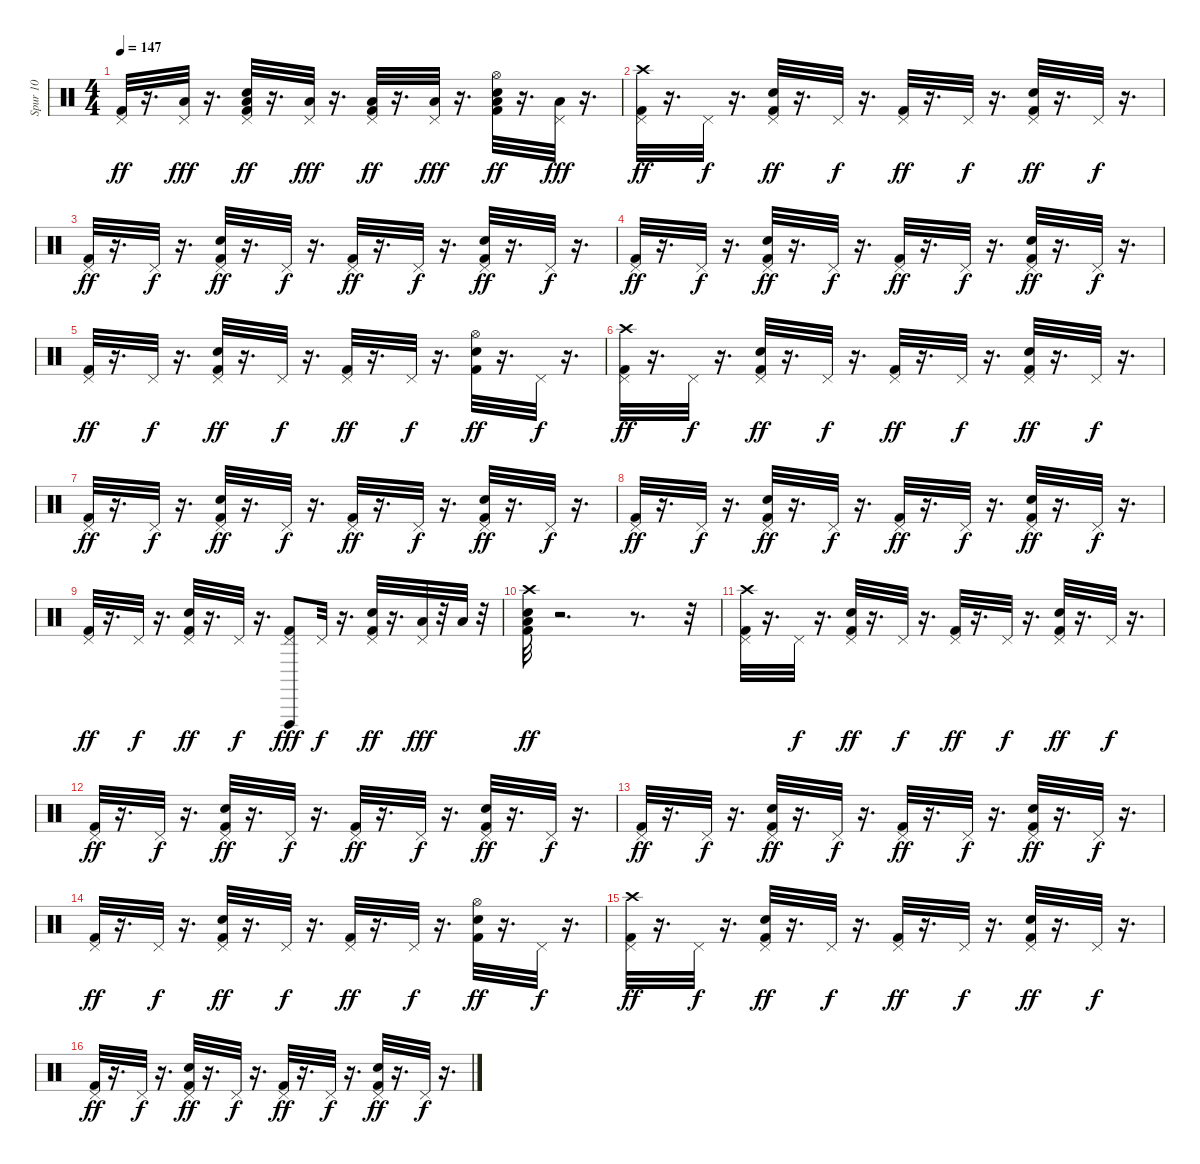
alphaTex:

\track ("Spur 10" "Spur 10") {instrument percussion}
\staff {score}
\articulation defaults
\ts (4 4)
\tempo 147
\clef neutral
\ks c
("Pedal Hi-Hat (hit)" "Kick (hit) 2").32{dy ff} r.16{d} ("Low Tom (hit)" "Pedal Hi-Hat (hit)").32{dy fff} r.16{d} ("Low Tom (hit)" "Snare (hit) 2" "Kick (hit) 2" "Pedal Hi-Hat (hit)").32{dy ff} r.16{d} ("Low Tom (hit)" "Pedal Hi-Hat (hit)").32{dy fff} r.16{d} ("Low Tom (hit)" "Kick (hit) 2" "Pedal Hi-Hat (hit)").32{dy ff} r.16{d} ("Low Floor Tom (hit)" "Pedal Hi-Hat (hit)").32{dy fff} r.16{d} ("Low Floor Tom (hit)" "Snare (hit) 2" "Hi-Hat (open)" "Kick (hit) 2").32{dy ff} r.16{d} ("Low Floor Tom (hit)" "Pedal Hi-Hat (hit)").32{dy fff} r.16{d} |
("Pedal Hi-Hat (hit)" "Kick (hit) 2" "Crash high (hit)").32{dy ff} r.16{d} "Pedal Hi-Hat (hit)".32{dy f} r.16{d} ("Snare (hit) 2" "Kick (hit) 2" "Pedal Hi-Hat (hit)").32{dy ff} r.16{d} "Pedal Hi-Hat (hit)".32{dy f} r.16{d} ("Kick (hit) 2" "Pedal Hi-Hat (hit)").32{dy ff} r.16{d} "Pedal Hi-Hat (hit)".32{dy f} r.16{d} ("Snare (hit) 2" "Pedal Hi-Hat (hit)" "Kick (hit) 2").32{dy ff} r.16{d} "Pedal Hi-Hat (hit)".32{dy f} r.16{d} |
("Pedal Hi-Hat (hit)" "Kick (hit) 2").32{dy ff} r.16{d} "Pedal Hi-Hat (hit)".32{dy f} r.16{d} ("Snare (hit) 2" "Kick (hit) 2" "Pedal Hi-Hat (hit)").32{dy ff} r.16{d} "Pedal Hi-Hat (hit)".32{dy f} r.16{d} ("Kick (hit) 2" "Pedal Hi-Hat (hit)").32{dy ff} r.16{d} "Pedal Hi-Hat (hit)".32{dy f} r.16{d} ("Snare (hit) 2" "Pedal Hi-Hat (hit)" "Kick (hit) 2").32{dy ff} r.16{d} "Pedal Hi-Hat (hit)".32{dy f} r.16{d} |
("Pedal Hi-Hat (hit)" "Kick (hit) 2").32{dy ff} r.16{d} "Pedal Hi-Hat (hit)".32{dy f} r.16{d} ("Snare (hit) 2" "Kick (hit) 2" "Pedal Hi-Hat (hit)").32{dy ff} r.16{d} "Pedal Hi-Hat (hit)".32{dy f} r.16{d} ("Kick (hit) 2" "Pedal Hi-Hat (hit)").32{dy ff} r.16{d} "Pedal Hi-Hat (hit)".32{dy f} r.16{d} ("Snare (hit) 2" "Pedal Hi-Hat (hit)" "Kick (hit) 2").32{dy ff} r.16{d} "Pedal Hi-Hat (hit)".32{dy f} r.16{d} |
("Pedal Hi-Hat (hit)" "Kick (hit) 2").32{dy ff} r.16{d} "Pedal Hi-Hat (hit)".32{dy f} r.16{d} ("Snare (hit) 2" "Kick (hit) 2" "Pedal Hi-Hat (hit)").32{dy ff} r.16{d} "Pedal Hi-Hat (hit)".32{dy f} r.16{d} ("Kick (hit) 2" "Pedal Hi-Hat (hit)").32{dy ff} r.16{d} "Pedal Hi-Hat (hit)".32{dy f} r.16{d} ("Snare (hit) 2" "Hi-Hat (open)" "Kick (hit) 2").32{dy ff} r.16{d} "Pedal Hi-Hat (hit)".32{dy f} r.16{d} |
("Pedal Hi-Hat (hit)" "Kick (hit) 2" "Crash high (hit)").32{dy ff} r.16{d} "Pedal Hi-Hat (hit)".32{dy f} r.16{d} ("Snare (hit) 2" "Kick (hit) 2" "Pedal Hi-Hat (hit)").32{dy ff} r.16{d} "Pedal Hi-Hat (hit)".32{dy f} r.16{d} ("Kick (hit) 2" "Pedal Hi-Hat (hit)").32{dy ff} r.16{d} "Pedal Hi-Hat (hit)".32{dy f} r.16{d} ("Snare (hit) 2" "Pedal Hi-Hat (hit)" "Kick (hit) 2").32{dy ff} r.16{d} "Pedal Hi-Hat (hit)".32{dy f} r.16{d} |
("Pedal Hi-Hat (hit)" "Kick (hit) 2").32{dy ff} r.16{d} "Pedal Hi-Hat (hit)".32{dy f} r.16{d} ("Snare (hit) 2" "Kick (hit) 2" "Pedal Hi-Hat (hit)").32{dy ff} r.16{d} "Pedal Hi-Hat (hit)".32{dy f} r.16{d} ("Kick (hit) 2" "Pedal Hi-Hat (hit)").32{dy ff} r.16{d} "Pedal Hi-Hat (hit)".32{dy f} r.16{d} ("Snare (hit) 2" "Pedal Hi-Hat (hit)" "Kick (hit) 2").32{dy ff} r.16{d} "Pedal Hi-Hat (hit)".32{dy f} r.16{d} |
("Pedal Hi-Hat (hit)" "Kick (hit) 2").32{dy ff} r.16{d} "Pedal Hi-Hat (hit)".32{dy f} r.16{d} ("Snare (hit) 2" "Kick (hit) 2" "Pedal Hi-Hat (hit)").32{dy ff} r.16{d} "Pedal Hi-Hat (hit)".32{dy f} r.16{d} ("Kick (hit) 2" "Pedal Hi-Hat (hit)").32{dy ff} r.16{d} "Pedal Hi-Hat (hit)".32{dy f} r.16{d} ("Snare (hit) 2" "Pedal Hi-Hat (hit)" "Kick (hit) 2").32{dy ff} r.16{d} "Pedal Hi-Hat (hit)".32{dy f} r.16{d} |
("Pedal Hi-Hat (hit)" "Kick (hit) 2").32{dy ff} r.16{d} "Pedal Hi-Hat (hit)".32{dy f} r.16{d} ("Snare (hit) 2" "Kick (hit) 2" "Pedal Hi-Hat (hit)").32{dy ff} r.16{d} "Pedal Hi-Hat (hit)".32{dy f} r.16{d} ("Kick (hit) 2" "Pedal Hi-Hat (hit)" "Vibraslap (hit)").8{dy fff} "Pedal Hi-Hat (hit)".32{dy f} r.16{d} ("Snare (hit) 2" "Pedal Hi-Hat (hit)" "Kick (hit) 2").32{dy ff} r.16{d} ("Low Tom (hit)" "Pedal Hi-Hat (hit)").32{dy fff} r.32 "Low Tom (hit)".32 r.32 |
("Low Floor Tom (hit)" "Snare (hit) 2" "Crash high (hit)" "Kick (hit) 2").32{dy ff} r.2{d} r.8{d} r.32 |
("Pedal Hi-Hat (hit)" "Kick (hit) 2" "Crash high (hit)").32 r.16{d} "Pedal Hi-Hat (hit)".32{dy f} r.16{d} ("Snare (hit) 2" "Kick (hit) 2" "Pedal Hi-Hat (hit)").32{dy ff} r.16{d} "Pedal Hi-Hat (hit)".32{dy f} r.16{d} ("Kick (hit) 2" "Pedal Hi-Hat (hit)").32{dy ff} r.16{d} "Pedal Hi-Hat (hit)".32{dy f} r.16{d} ("Snare (hit) 2" "Pedal Hi-Hat (hit)" "Kick (hit) 2").32{dy ff} r.16{d} "Pedal Hi-Hat (hit)".32{dy f} r.16{d} |
("Pedal Hi-Hat (hit)" "Kick (hit) 2").32{dy ff} r.16{d} "Pedal Hi-Hat (hit)".32{dy f} r.16{d} ("Snare (hit) 2" "Kick (hit) 2" "Pedal Hi-Hat (hit)").32{dy ff} r.16{d} "Pedal Hi-Hat (hit)".32{dy f} r.16{d} ("Kick (hit) 2" "Pedal Hi-Hat (hit)").32{dy ff} r.16{d} "Pedal Hi-Hat (hit)".32{dy f} r.16{d} ("Snare (hit) 2" "Pedal Hi-Hat (hit)" "Kick (hit) 2").32{dy ff} r.16{d} "Pedal Hi-Hat (hit)".32{dy f} r.16{d} |
("Pedal Hi-Hat (hit)" "Kick (hit) 2").32{dy ff} r.16{d} "Pedal Hi-Hat (hit)".32{dy f} r.16{d} ("Snare (hit) 2" "Kick (hit) 2" "Pedal Hi-Hat (hit)").32{dy ff} r.16{d} "Pedal Hi-Hat (hit)".32{dy f} r.16{d} ("Kick (hit) 2" "Pedal Hi-Hat (hit)").32{dy ff} r.16{d} "Pedal Hi-Hat (hit)".32{dy f} r.16{d} ("Snare (hit) 2" "Pedal Hi-Hat (hit)" "Kick (hit) 2").32{dy ff} r.16{d} "Pedal Hi-Hat (hit)".32{dy f} r.16{d} |
("Pedal Hi-Hat (hit)" "Kick (hit) 2").32{dy ff} r.16{d} "Pedal Hi-Hat (hit)".32{dy f} r.16{d} ("Snare (hit) 2" "Kick (hit) 2" "Pedal Hi-Hat (hit)").32{dy ff} r.16{d} "Pedal Hi-Hat (hit)".32{dy f} r.16{d} ("Kick (hit) 2" "Pedal Hi-Hat (hit)").32{dy ff} r.16{d} "Pedal Hi-Hat (hit)".32{dy f} r.16{d} ("Snare (hit) 2" "Hi-Hat (open)" "Kick (hit) 2").32{dy ff} r.16{d} "Pedal Hi-Hat (hit)".32{dy f} r.16{d} |
("Pedal Hi-Hat (hit)" "Kick (hit) 2" "Crash high (hit)").32{dy ff} r.16{d} "Pedal Hi-Hat (hit)".32{dy f} r.16{d} ("Snare (hit) 2" "Kick (hit) 2" "Pedal Hi-Hat (hit)").32{dy ff} r.16{d} "Pedal Hi-Hat (hit)".32{dy f} r.16{d} ("Kick (hit) 2" "Pedal Hi-Hat (hit)").32{dy ff} r.16{d} "Pedal Hi-Hat (hit)".32{dy f} r.16{d} ("Snare (hit) 2" "Pedal Hi-Hat (hit)" "Kick (hit) 2").32{dy ff} r.16{d} "Pedal Hi-Hat (hit)".32{dy f} r.16{d} |
("Pedal Hi-Hat (hit)" "Kick (hit) 2").32{dy ff} r.16{d} "Pedal Hi-Hat (hit)".32{dy f} r.16{d} ("Snare (hit) 2" "Kick (hit) 2" "Pedal Hi-Hat (hit)").32{dy ff} r.16{d} "Pedal Hi-Hat (hit)".32{dy f} r.16{d} ("Kick (hit) 2" "Pedal Hi-Hat (hit)").32{dy ff} r.16{d} "Pedal Hi-Hat (hit)".32{dy f} r.16{d} ("Snare (hit) 2" "Pedal Hi-Hat (hit)" "Kick (hit) 2").32{dy ff} r.16{d} "Pedal Hi-Hat (hit)".32{dy f} r.16{d}
